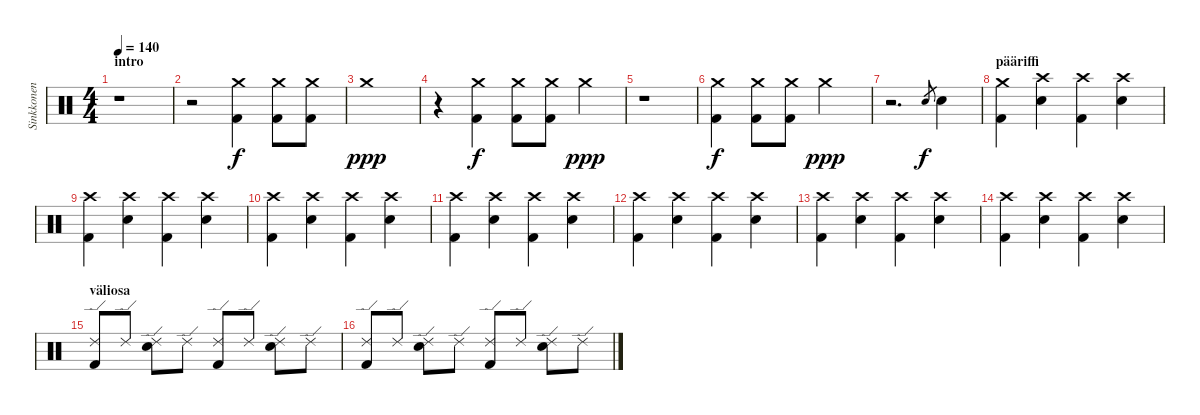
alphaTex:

\track ("Sinkkonen" "Sinkkonen") {instrument percussion}
\staff {score}
\articulation defaults
\ts (4 4)
\section ("" "intro")
\tempo 140
\clef neutral
\ks c
r.1{dy f} |
r.2 ("Kick (hit) 2" "Crash medium (hit)").4 ("Kick (hit) 2" "Crash medium (hit)").8 ("Kick (hit) 2" "Crash medium (hit)").8 |
"Crash medium (hit)".1{dy ppp} |
r.4 ("Kick (hit) 2" "Crash medium (hit)").4{dy f} ("Kick (hit) 2" "Crash medium (hit)").8 ("Kick (hit) 2" "Crash medium (hit)").8 "Crash medium (hit)".4{dy ppp} |
r.1 |
("Kick (hit) 2" "Crash medium (hit)").4{dy f} ("Kick (hit) 2" "Crash medium (hit)").8 ("Kick (hit) 2" "Crash medium (hit)").8 "Crash medium (hit)".2{dy ppp} |
r.2{d} "Snare (hit) 2".8{gr dy f} "Snare (hit) 2".4 |
\section ("" "pääriffi")
("Kick (hit) 2" "Crash medium (hit)").4 ("Crash high (hit)" "Snare (hit) 2").4 ("Kick (hit) 2" "Crash high (hit)").4 ("Crash high (hit)" "Snare (hit) 2").4 |
("Kick (hit) 2" "Crash high (hit)").4 ("Crash high (hit)" "Snare (hit) 2").4 ("Kick (hit) 2" "Crash high (hit)").4 ("Crash high (hit)" "Snare (hit) 2").4 |
("Kick (hit) 2" "Crash high (hit)").4 ("Crash high (hit)" "Snare (hit) 2").4 ("Kick (hit) 2" "Crash high (hit)").4 ("Crash high (hit)" "Snare (hit) 2").4 |
("Kick (hit) 2" "Crash high (hit)").4 ("Crash high (hit)" "Snare (hit) 2").4 ("Kick (hit) 2" "Crash high (hit)").4 ("Crash high (hit)" "Snare (hit) 2").4 |
("Kick (hit) 2" "Crash high (hit)").4 ("Crash high (hit)" "Snare (hit) 2").4 ("Kick (hit) 2" "Crash high (hit)").4 ("Crash high (hit)" "Snare (hit) 2").4 |
("Kick (hit) 2" "Crash high (hit)").4 ("Crash high (hit)" "Snare (hit) 2").4 ("Kick (hit) 2" "Crash high (hit)").4 ("Crash high (hit)" "Snare (hit) 2").4 |
("Kick (hit) 2" "Crash high (hit)").4 ("Crash high (hit)" "Snare (hit) 2").4 ("Kick (hit) 2" "Crash high (hit)").4 ("Crash high (hit)" "Snare (hit) 2").4 |
\section ("" "väliosa")
("Kick (hit) 2" "Ride (edge) 2").8 "Ride (edge) 2".8 ("Ride (edge) 2" "Snare (hit) 2").8 "Ride (edge) 2".8 ("Kick (hit) 2" "Ride (edge) 2").8 "Ride (edge) 2".8 ("Ride (edge) 2" "Snare (hit) 2").8 "Ride (edge) 2".8 |
("Kick (hit) 2" "Ride (edge) 2").8 "Ride (edge) 2".8 ("Ride (edge) 2" "Snare (hit) 2").8 "Ride (edge) 2".8 ("Kick (hit) 2" "Ride (edge) 2").8 "Ride (edge) 2".8 ("Ride (edge) 2" "Snare (hit) 2").8 "Ride (edge) 2".8
